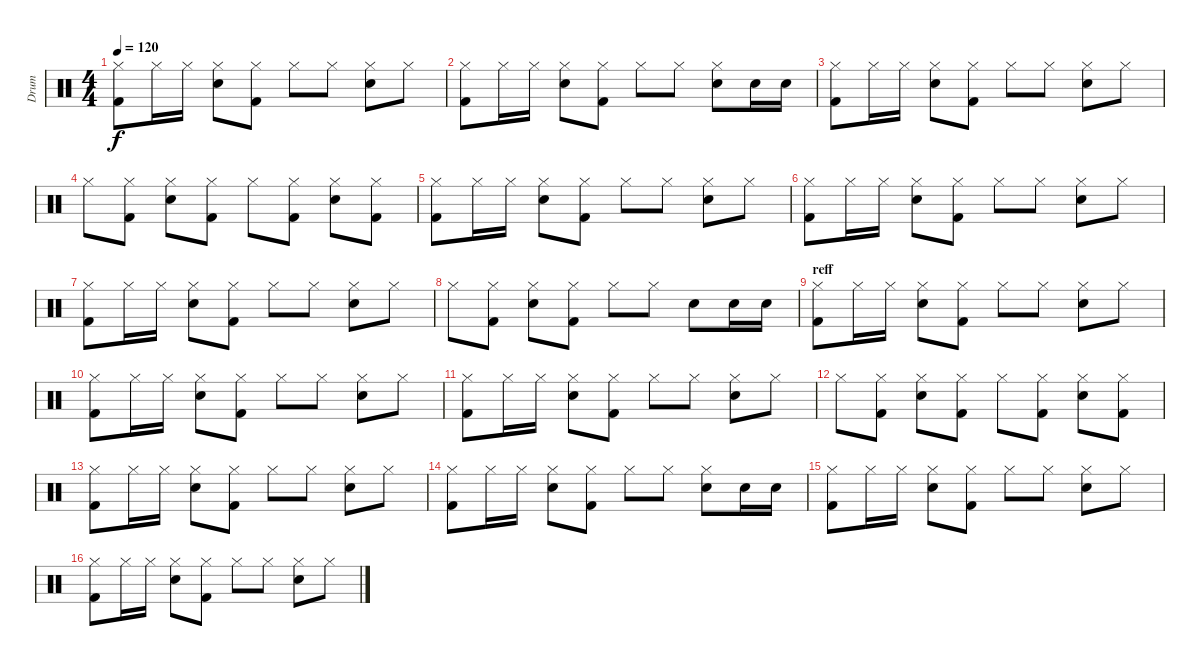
\track ("Drum" "Drum") {instrument percussion}
\staff {score}
\articulation defaults
\ts (4 4)
\tempo 120
\clef neutral
\ks c
("Kick (hit) 2" "Hi-Hat (closed)").8{dy f} "Hi-Hat (closed)".16 "Hi-Hat (closed)".16 ("Snare (hit) 2" "Hi-Hat (closed)").8 ("Kick (hit) 2" "Hi-Hat (closed)").8 "Hi-Hat (closed)".8 "Hi-Hat (closed)".8 ("Snare (hit) 2" "Hi-Hat (closed)").8 "Hi-Hat (closed)".8 |
("Kick (hit) 2" "Hi-Hat (closed)").8 "Hi-Hat (closed)".16 "Hi-Hat (closed)".16 ("Snare (hit) 2" "Hi-Hat (closed)").8 ("Kick (hit) 2" "Hi-Hat (closed)").8 "Hi-Hat (closed)".8 "Hi-Hat (closed)".8 ("Snare (hit) 2" "Hi-Hat (closed)").8 "Snare (hit) 2".16 "Snare (hit) 2".16 |
("Kick (hit) 2" "Hi-Hat (closed)").8 "Hi-Hat (closed)".16 "Hi-Hat (closed)".16 ("Snare (hit) 2" "Hi-Hat (closed)").8 ("Kick (hit) 2" "Hi-Hat (closed)").8 "Hi-Hat (closed)".8 "Hi-Hat (closed)".8 ("Snare (hit) 2" "Hi-Hat (closed)").8 "Hi-Hat (closed)".8 |
"Hi-Hat (closed)".8 ("Kick (hit) 2" "Hi-Hat (closed)").8 ("Snare (hit) 2" "Hi-Hat (closed)").8 ("Kick (hit) 2" "Hi-Hat (closed)").8 "Hi-Hat (closed)".8 ("Kick (hit) 2" "Hi-Hat (closed)").8 ("Snare (hit) 2" "Hi-Hat (closed)").8 ("Kick (hit) 2" "Hi-Hat (closed)").8 |
("Kick (hit) 2" "Hi-Hat (closed)").8 "Hi-Hat (closed)".16 "Hi-Hat (closed)".16 ("Snare (hit) 2" "Hi-Hat (closed)").8 ("Kick (hit) 2" "Hi-Hat (closed)").8 "Hi-Hat (closed)".8 "Hi-Hat (closed)".8 ("Snare (hit) 2" "Hi-Hat (closed)").8 "Hi-Hat (closed)".8 |
("Kick (hit) 2" "Hi-Hat (closed)").8 "Hi-Hat (closed)".16 "Hi-Hat (closed)".16 ("Snare (hit) 2" "Hi-Hat (closed)").8 ("Kick (hit) 2" "Hi-Hat (closed)").8 "Hi-Hat (closed)".8 "Hi-Hat (closed)".8 ("Snare (hit) 2" "Hi-Hat (closed)").8 "Hi-Hat (closed)".8 |
("Kick (hit) 2" "Hi-Hat (closed)").8 "Hi-Hat (closed)".16 "Hi-Hat (closed)".16 ("Snare (hit) 2" "Hi-Hat (closed)").8 ("Kick (hit) 2" "Hi-Hat (closed)").8 "Hi-Hat (closed)".8 "Hi-Hat (closed)".8 ("Snare (hit) 2" "Hi-Hat (closed)").8 "Hi-Hat (closed)".8 |
"Hi-Hat (closed)".8 ("Kick (hit) 2" "Hi-Hat (closed)").8 ("Snare (hit) 2" "Hi-Hat (closed)").8 ("Kick (hit) 2" "Hi-Hat (closed)").8 "Hi-Hat (closed)".8 "Hi-Hat (closed)".8 "Snare (hit) 2".8 "Snare (hit) 2".16 "Snare (hit) 2".16 |
\section ("" "reff")
("Kick (hit) 2" "Hi-Hat (closed)").8 "Hi-Hat (closed)".16 "Hi-Hat (closed)".16 ("Snare (hit) 2" "Hi-Hat (closed)").8 ("Kick (hit) 2" "Hi-Hat (closed)").8 "Hi-Hat (closed)".8 "Hi-Hat (closed)".8 ("Snare (hit) 2" "Hi-Hat (closed)").8 "Hi-Hat (closed)".8 |
("Kick (hit) 2" "Hi-Hat (closed)").8 "Hi-Hat (closed)".16 "Hi-Hat (closed)".16 ("Snare (hit) 2" "Hi-Hat (closed)").8 ("Kick (hit) 2" "Hi-Hat (closed)").8 "Hi-Hat (closed)".8 "Hi-Hat (closed)".8 ("Snare (hit) 2" "Hi-Hat (closed)").8 "Hi-Hat (closed)".8 |
("Kick (hit) 2" "Hi-Hat (closed)").8 "Hi-Hat (closed)".16 "Hi-Hat (closed)".16 ("Snare (hit) 2" "Hi-Hat (closed)").8 ("Kick (hit) 2" "Hi-Hat (closed)").8 "Hi-Hat (closed)".8 "Hi-Hat (closed)".8 ("Snare (hit) 2" "Hi-Hat (closed)").8 "Hi-Hat (closed)".8 |
"Hi-Hat (closed)".8 ("Kick (hit) 2" "Hi-Hat (closed)").8 ("Snare (hit) 2" "Hi-Hat (closed)").8 ("Kick (hit) 2" "Hi-Hat (closed)").8 "Hi-Hat (closed)".8 ("Kick (hit) 2" "Hi-Hat (closed)").8 ("Snare (hit) 2" "Hi-Hat (closed)").8 ("Kick (hit) 2" "Hi-Hat (closed)").8 |
("Kick (hit) 2" "Hi-Hat (closed)").8 "Hi-Hat (closed)".16 "Hi-Hat (closed)".16 ("Snare (hit) 2" "Hi-Hat (closed)").8 ("Kick (hit) 2" "Hi-Hat (closed)").8 "Hi-Hat (closed)".8 "Hi-Hat (closed)".8 ("Snare (hit) 2" "Hi-Hat (closed)").8 "Hi-Hat (closed)".8 |
("Kick (hit) 2" "Hi-Hat (closed)").8 "Hi-Hat (closed)".16 "Hi-Hat (closed)".16 ("Snare (hit) 2" "Hi-Hat (closed)").8 ("Kick (hit) 2" "Hi-Hat (closed)").8 "Hi-Hat (closed)".8 "Hi-Hat (closed)".8 ("Snare (hit) 2" "Hi-Hat (closed)").8 "Snare (hit) 2".16 "Snare (hit) 2".16 |
("Kick (hit) 2" "Hi-Hat (closed)").8 "Hi-Hat (closed)".16 "Hi-Hat (closed)".16 ("Snare (hit) 2" "Hi-Hat (closed)").8 ("Kick (hit) 2" "Hi-Hat (closed)").8 "Hi-Hat (closed)".8 "Hi-Hat (closed)".8 ("Snare (hit) 2" "Hi-Hat (closed)").8 "Hi-Hat (closed)".8 |
("Kick (hit) 2" "Hi-Hat (closed)").8 "Hi-Hat (closed)".16 "Hi-Hat (closed)".16 ("Snare (hit) 2" "Hi-Hat (closed)").8 ("Kick (hit) 2" "Hi-Hat (closed)").8 "Hi-Hat (closed)".8 "Hi-Hat (closed)".8 ("Snare (hit) 2" "Hi-Hat (closed)").8 "Hi-Hat (closed)".8
